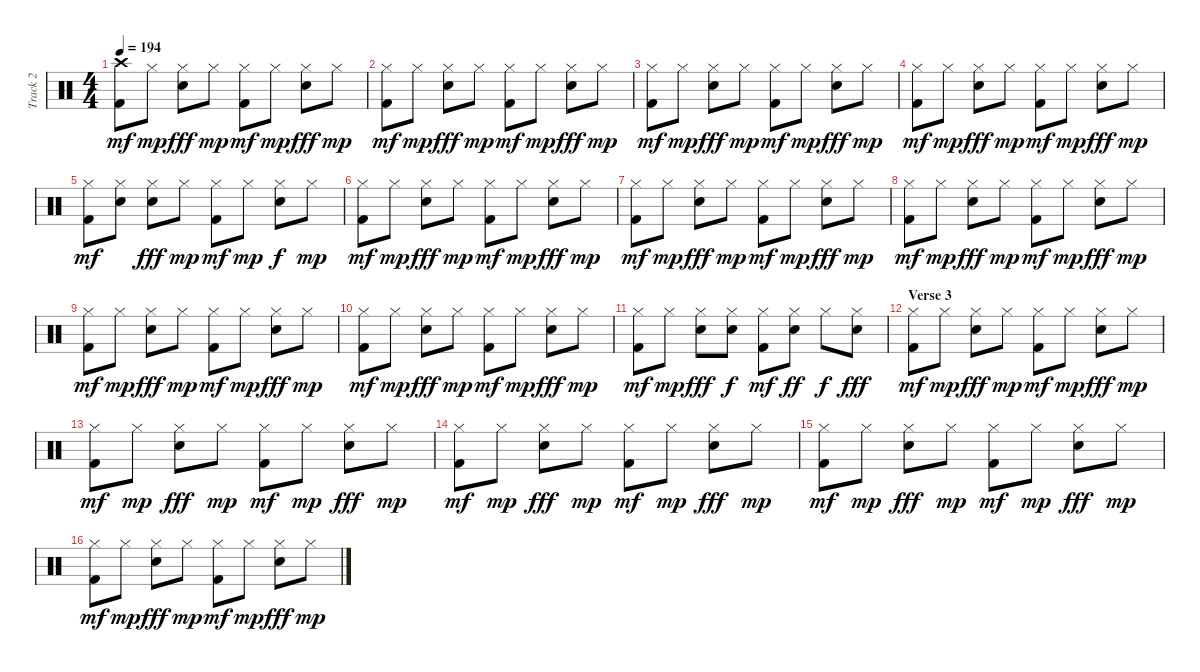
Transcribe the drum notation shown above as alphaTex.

\track ("Track 2" "Track 2") {instrument percussion}
\staff {score}
\articulation defaults
\ts (4 4)
\tempo 194
\clef neutral
\ks c
("Crash high (hit)" "Kick (hit) 2").8{dy mf} "Hi-Hat (closed)".8{dy mp} ("Hi-Hat (closed)" "Snare (hit)").8{dy fff} "Hi-Hat (closed)".8{dy mp} ("Hi-Hat (closed)" "Kick (hit) 2").8{dy mf} "Hi-Hat (closed)".8{dy mp} ("Hi-Hat (closed)" "Snare (hit)").8{dy fff} "Hi-Hat (closed)".8{dy mp} |
("Hi-Hat (closed)" "Kick (hit) 2").8{dy mf} "Hi-Hat (closed)".8{dy mp} ("Hi-Hat (closed)" "Snare (hit)").8{dy fff} "Hi-Hat (closed)".8{dy mp} ("Hi-Hat (closed)" "Kick (hit) 2").8{dy mf} "Hi-Hat (closed)".8{dy mp} ("Hi-Hat (closed)" "Snare (hit)").8{dy fff} "Hi-Hat (closed)".8{dy mp} |
("Hi-Hat (closed)" "Kick (hit) 2").8{dy mf} "Hi-Hat (closed)".8{dy mp} ("Hi-Hat (closed)" "Snare (hit)").8{dy fff} "Hi-Hat (closed)".8{dy mp} ("Hi-Hat (closed)" "Kick (hit) 2").8{dy mf} "Hi-Hat (closed)".8{dy mp} ("Hi-Hat (closed)" "Snare (hit)").8{dy fff} "Hi-Hat (closed)".8{dy mp} |
("Hi-Hat (closed)" "Kick (hit) 2").8{dy mf} "Hi-Hat (closed)".8{dy mp} ("Hi-Hat (closed)" "Snare (hit)").8{dy fff} "Hi-Hat (closed)".8{dy mp} ("Hi-Hat (closed)" "Kick (hit) 2").8{dy mf} "Hi-Hat (closed)".8{dy mp} ("Hi-Hat (closed)" "Snare (hit)").8{dy fff} "Hi-Hat (closed)".8{dy mp} |
("Hi-Hat (closed)" "Kick (hit) 2").8{dy mf} ("Hi-Hat (closed)" "Snare (hit)").8 ("Hi-Hat (closed)" "Snare (hit)").8{dy fff} "Hi-Hat (closed)".8{dy mp} ("Hi-Hat (closed)" "Kick (hit) 2").8{dy mf} "Hi-Hat (closed)".8{dy mp} ("Hi-Hat (closed)" "Snare (hit)").8{dy f} "Hi-Hat (closed)".8{dy mp} |
("Hi-Hat (closed)" "Kick (hit) 2").8{dy mf} "Hi-Hat (closed)".8{dy mp} ("Hi-Hat (closed)" "Snare (hit)").8{dy fff} "Hi-Hat (closed)".8{dy mp} ("Hi-Hat (closed)" "Kick (hit) 2").8{dy mf} "Hi-Hat (closed)".8{dy mp} ("Hi-Hat (closed)" "Snare (hit)").8{dy fff} "Hi-Hat (closed)".8{dy mp} |
("Hi-Hat (closed)" "Kick (hit) 2").8{dy mf} "Hi-Hat (closed)".8{dy mp} ("Hi-Hat (closed)" "Snare (hit)").8{dy fff} "Hi-Hat (closed)".8{dy mp} ("Hi-Hat (closed)" "Kick (hit) 2").8{dy mf} "Hi-Hat (closed)".8{dy mp} ("Hi-Hat (closed)" "Snare (hit)").8{dy fff} "Hi-Hat (closed)".8{dy mp} |
("Hi-Hat (closed)" "Kick (hit) 2").8{dy mf} "Hi-Hat (closed)".8{dy mp} ("Hi-Hat (closed)" "Snare (hit)").8{dy fff} "Hi-Hat (closed)".8{dy mp} ("Hi-Hat (closed)" "Kick (hit) 2").8{dy mf} "Hi-Hat (closed)".8{dy mp} ("Hi-Hat (closed)" "Snare (hit)").8{dy fff} "Hi-Hat (closed)".8{dy mp} |
("Hi-Hat (closed)" "Kick (hit) 2").8{dy mf} "Hi-Hat (closed)".8{dy mp} ("Hi-Hat (closed)" "Snare (hit)").8{dy fff} "Hi-Hat (closed)".8{dy mp} ("Hi-Hat (closed)" "Kick (hit) 2").8{dy mf} "Hi-Hat (closed)".8{dy mp} ("Hi-Hat (closed)" "Snare (hit)").8{dy fff} "Hi-Hat (closed)".8{dy mp} |
("Hi-Hat (closed)" "Kick (hit) 2").8{dy mf} "Hi-Hat (closed)".8{dy mp} ("Hi-Hat (closed)" "Snare (hit)").8{dy fff} "Hi-Hat (closed)".8{dy mp} ("Hi-Hat (closed)" "Kick (hit) 2").8{dy mf} "Hi-Hat (closed)".8{dy mp} ("Hi-Hat (closed)" "Snare (hit)").8{dy fff} "Hi-Hat (closed)".8{dy mp} |
("Hi-Hat (closed)" "Kick (hit) 2").8{dy mf} "Hi-Hat (closed)".8{dy mp} ("Hi-Hat (closed)" "Snare (hit)").8{dy fff} ("Hi-Hat (closed)" "Snare (hit)").8{dy f} ("Hi-Hat (closed)" "Kick (hit) 2").8{dy mf} ("Hi-Hat (closed)" "Snare (hit)").8{dy ff} "Hi-Hat (closed)".8{dy f} ("Hi-Hat (closed)" "Snare (hit)").8{dy fff} |
\section ("" "Verse 3")
("Hi-Hat (closed)" "Kick (hit) 2").8{dy mf} "Hi-Hat (closed)".8{dy mp} ("Hi-Hat (closed)" "Snare (hit)").8{dy fff} "Hi-Hat (closed)".8{dy mp} ("Hi-Hat (closed)" "Kick (hit) 2").8{dy mf} "Hi-Hat (closed)".8{dy mp} ("Hi-Hat (closed)" "Snare (hit)").8{dy fff} "Hi-Hat (closed)".8{dy mp} |
("Hi-Hat (closed)" "Kick (hit) 2").8{dy mf} "Hi-Hat (closed)".8{dy mp} ("Hi-Hat (closed)" "Snare (hit)").8{dy fff} "Hi-Hat (closed)".8{dy mp} ("Hi-Hat (closed)" "Kick (hit) 2").8{dy mf} "Hi-Hat (closed)".8{dy mp} ("Hi-Hat (closed)" "Snare (hit)").8{dy fff} "Hi-Hat (closed)".8{dy mp} |
("Hi-Hat (closed)" "Kick (hit) 2").8{dy mf} "Hi-Hat (closed)".8{dy mp} ("Hi-Hat (closed)" "Snare (hit)").8{dy fff} "Hi-Hat (closed)".8{dy mp} ("Hi-Hat (closed)" "Kick (hit) 2").8{dy mf} "Hi-Hat (closed)".8{dy mp} ("Hi-Hat (closed)" "Snare (hit)").8{dy fff} "Hi-Hat (closed)".8{dy mp} |
("Hi-Hat (closed)" "Kick (hit) 2").8{dy mf} "Hi-Hat (closed)".8{dy mp} ("Hi-Hat (closed)" "Snare (hit)").8{dy fff} "Hi-Hat (closed)".8{dy mp} ("Hi-Hat (closed)" "Kick (hit) 2").8{dy mf} "Hi-Hat (closed)".8{dy mp} ("Hi-Hat (closed)" "Snare (hit)").8{dy fff} "Hi-Hat (closed)".8{dy mp} |
("Hi-Hat (closed)" "Kick (hit) 2").8{dy mf} "Hi-Hat (closed)".8{dy mp} ("Hi-Hat (closed)" "Snare (hit)").8{dy fff} "Hi-Hat (closed)".8{dy mp} ("Hi-Hat (closed)" "Kick (hit) 2").8{dy mf} "Hi-Hat (closed)".8{dy mp} ("Hi-Hat (closed)" "Snare (hit)").8{dy fff} "Hi-Hat (closed)".8{dy mp}
